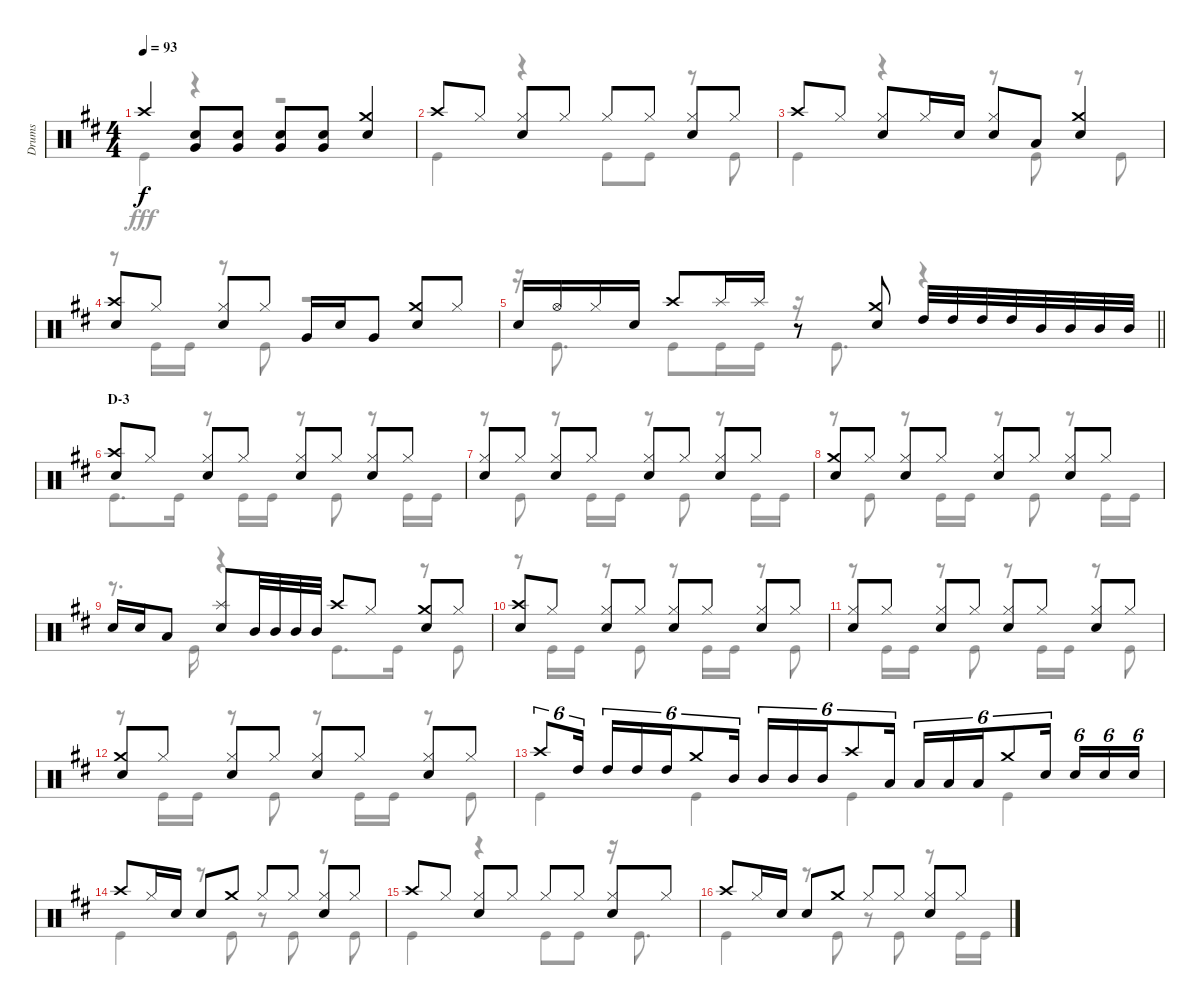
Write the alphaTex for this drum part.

\track ("Drums" "Drums") {instrument percussion}
\staff {score}
\articulation defaults
\voice
\ts (4 4)
\tempo 93
\clef neutral
\ks d "Crash high (hit)".4{dy f}
("Snare (hit) 2" "Very Low Tom (hit)").8 ("Snare (hit) 2" "Very Low Tom (hit)").8 ("Snare (hit) 2" "Very Low Tom (hit)").8 ("Snare (hit) 2" "Very Low Tom (hit)").8 ("Snare (hit) 2" "Crash medium (hit)").4 |
"Crash high (hit)".8 "Hi-Hat (closed)".8 ("Hi-Hat (closed)" "Snare (hit) 2").8 "Hi-Hat (closed)".8 "Hi-Hat (closed)".8 "Hi-Hat (closed)".8 ("Hi-Hat (closed)" "Snare (hit) 2").8 "Hi-Hat (closed)".8 |
"Crash high (hit)".8 "Hi-Hat (closed)".8 ("Hi-Hat (closed)" "Snare (hit) 2").8 "Hi-Hat (closed)".16 "Snare (hit) 2".16 ("Snare (hit) 2" "Hi-Hat (closed)").8 "Low Tom (hit)".8 ("Crash medium (hit)" "Snare (hit) 2").4 |
("Crash high (hit)" "Snare (hit) 2").8 "Hi-Hat (closed)".8 ("Hi-Hat (closed)" "Snare (hit) 2").8 "Hi-Hat (closed)".8 "Very Low Tom (hit)".16 "Snare (hit) 2".16 "Very Low Tom (hit)".8 ("Crash medium (hit)" "Snare (hit) 2").8 "Hi-Hat (closed)".8 |
\barLineRight lightlight "Snare (hit) 2".16 "Hi-Hat (open)".16 "Hi-Hat (closed)".16 "Snare (hit) 2".16 "Crash high (hit)".8 "Splash (hit)".16 "Splash (hit)".16
r.8 ("Crash medium (hit)" "Snare (hit) 2").8 "High Tom (hit)".32 "High Tom (hit)".32 "High Tom (hit)".32 "High Tom (hit)".32 "Mid Tom (hit)".32 "Mid Tom (hit)".32 "Mid Tom (hit)".32 "Mid Tom (hit)".32 |
\section ("" "D-3")
("Crash high (hit)" "Snare (hit) 2").8 "Hi-Hat (closed)".8 ("Hi-Hat (closed)" "Snare (hit) 2").8 "Hi-Hat (closed)".8 ("Hi-Hat (closed)" "Snare (hit) 2").8 "Hi-Hat (closed)".8 ("Hi-Hat (closed)" "Snare (hit) 2").8 "Hi-Hat (closed)".8 |
("Hi-Hat (closed)" "Snare (hit) 2").8 "Hi-Hat (closed)".8 ("Hi-Hat (closed)" "Snare (hit) 2").8 "Hi-Hat (closed)".8 ("Hi-Hat (closed)" "Snare (hit) 2").8 "Hi-Hat (closed)".8 ("Hi-Hat (closed)" "Snare (hit) 2").8 "Hi-Hat (closed)".8 |
("Crash medium (hit)" "Snare (hit) 2").8 "Hi-Hat (closed)".8 ("Hi-Hat (closed)" "Snare (hit) 2").8 "Hi-Hat (closed)".8 ("Hi-Hat (closed)" "Snare (hit) 2").8 "Hi-Hat (closed)".8 ("Hi-Hat (closed)" "Snare (hit) 2").8 "Hi-Hat (closed)".8 |
"Snare (hit) 2".16 "Snare (hit) 2".16 "Low Tom (hit)".8 ("Splash (hit)" "Snare (hit) 2").8 "Mid Tom (hit)".32 "Mid Tom (hit)".32 "Mid Tom (hit)".32 "Mid Tom (hit)".32 "Crash high (hit)".8 "Hi-Hat (closed)".8 ("Crash medium (hit)" "Snare (hit) 2").8 "Hi-Hat (closed)".8 |
("Crash high (hit)" "Snare (hit) 2").8 "Hi-Hat (closed)".8 ("Hi-Hat (closed)" "Snare (hit) 2").8 "Hi-Hat (closed)".8 ("Hi-Hat (closed)" "Snare (hit) 2").8 "Hi-Hat (closed)".8 ("Hi-Hat (closed)" "Snare (hit) 2").8 "Hi-Hat (closed)".8 |
("Hi-Hat (closed)" "Snare (hit) 2").8 "Hi-Hat (closed)".8 ("Hi-Hat (closed)" "Snare (hit) 2").8 "Hi-Hat (closed)".8 ("Hi-Hat (closed)" "Snare (hit) 2").8 "Hi-Hat (closed)".8 ("Hi-Hat (closed)" "Snare (hit) 2").8 "Hi-Hat (closed)".8 |
("Crash medium (hit)" "Snare (hit) 2").8 "Hi-Hat (closed)".8 ("Hi-Hat (closed)" "Snare (hit) 2").8 "Hi-Hat (closed)".8 ("Hi-Hat (closed)" "Snare (hit) 2").8 "Hi-Hat (closed)".8 ("Hi-Hat (closed)" "Snare (hit) 2").8 "Hi-Hat (closed)".8 |
"Crash high (hit)".8{tu (6 4)} "High Tom (hit)".16{tu (6 4) beam splitsecondary} "High Tom (hit)".16{tu (6 4)} "High Tom (hit)".16{tu (6 4)} "High Tom (hit)".16{tu (6 4)} "Crash medium (hit)".8{tu (6 4)} "Mid Tom (hit)".16{tu (6 4) beam splitsecondary} "Mid Tom (hit)".16{tu (6 4)} "Mid Tom (hit)".16{tu (6 4)} "Mid Tom (hit)".16{tu (6 4)} "Crash high (hit)".8{tu (6 4)} "Low Tom (hit)".16{tu (6 4) beam splitsecondary} "Low Tom (hit)".16{tu (6 4)} "Low Tom (hit)".16{tu (6 4)} "Low Tom (hit)".16{tu (6 4)} "Crash medium (hit)".8{tu (6 4)} "Snare (hit) 2".16{tu (6 4) beam splitsecondary} "Snare (hit) 2".16{tu (6 4)} "Snare (hit) 2".16{tu (6 4)} "Snare (hit) 2".16{tu (6 4)} |
"Crash high (hit)".8 "Hi-Hat (closed)".16 "Snare (hit) 2".16 "Snare (hit) 2".8 "Crash medium (hit)".8 "Hi-Hat (closed)".8 "Hi-Hat (closed)".8 ("Hi-Hat (closed)" "Snare (hit) 2").8 "Hi-Hat (closed)".8 |
"Crash high (hit)".8 "Hi-Hat (closed)".8 ("Hi-Hat (closed)" "Snare (hit) 2").8 "Hi-Hat (closed)".8 "Hi-Hat (closed)".8 "Hi-Hat (closed)".8 ("Hi-Hat (closed)" "Snare (hit) 2").8 "Hi-Hat (closed)".8 |
"Crash high (hit)".8 "Hi-Hat (closed)".16 "Snare (hit) 2".16 "Snare (hit) 2".8 "Crash medium (hit)".8 "Hi-Hat (closed)".8 "Hi-Hat (closed)".8 ("Hi-Hat (closed)" "Snare (hit) 2").8 "Hi-Hat (closed)".8
\voice
\clef neutral
\ottava regular
\simile none
\ks d "Kick (hit)".4{dy fff}
r.4 r.2 |
"Kick (hit)".4 r.4 "Kick (hit)".8 "Kick (hit)".8 r.8 "Kick (hit)".8 |
"Kick (hit)".4 r.4 r.8 "Kick (hit)".8 r.8 "Kick (hit)".8 |
r.8 "Kick (hit)".16 "Kick (hit)".16 r.8 "Kick (hit)".8 r.2 |
\barLineRight lightlight
r.16 "Kick (hit)".8{d} "Kick (hit)".8 "Kick (hit)".16 "Kick (hit)".16 r.16 "Kick (hit)".8{d} r.4 |
"Kick (hit)".8{d} "Kick (hit)".16 r.8 "Kick (hit)".16 "Kick (hit)".16 r.8 "Kick (hit)".8 r.8 "Kick (hit)".16 "Kick (hit)".16 |
r.8 "Kick (hit)".8 r.8 "Kick (hit)".16 "Kick (hit)".16 r.8 "Kick (hit)".8 r.8 "Kick (hit)".16 "Kick (hit)".16 |
r.8 "Kick (hit)".8 r.8 "Kick (hit)".16 "Kick (hit)".16 r.8 "Kick (hit)".8 r.8 "Kick (hit)".16 "Kick (hit)".16 |
r.8{d} "Kick (hit)".16 r.4 "Kick (hit)".8{d} "Kick (hit)".16 r.8 "Kick (hit)".8 |
r.8 "Kick (hit)".16 "Kick (hit)".16 r.8 "Kick (hit)".8 r.8 "Kick (hit)".16 "Kick (hit)".16 r.8 "Kick (hit)".8 |
r.8 "Kick (hit)".16 "Kick (hit)".16 r.8 "Kick (hit)".8 r.8 "Kick (hit)".16 "Kick (hit)".16 r.8 "Kick (hit)".8 |
r.8 "Kick (hit)".16 "Kick (hit)".16 r.8 "Kick (hit)".8 r.8 "Kick (hit)".16 "Kick (hit)".16 r.8 "Kick (hit)".8 |
"Kick (hit)".4 "Kick (hit)".4 "Kick (hit)".4 "Kick (hit)".4 |
"Kick (hit)".4 r.8 "Kick (hit)".8 r.8 "Kick (hit)".8 r.8 "Kick (hit)".8 |
"Kick (hit)".4 r.4 "Kick (hit)".8 "Kick (hit)".8 r.16 "Kick (hit)".8{d} |
"Kick (hit)".4 r.8 "Kick (hit)".8 r.8 "Kick (hit)".8 r.8 "Kick (hit)".16 "Kick (hit)".16
